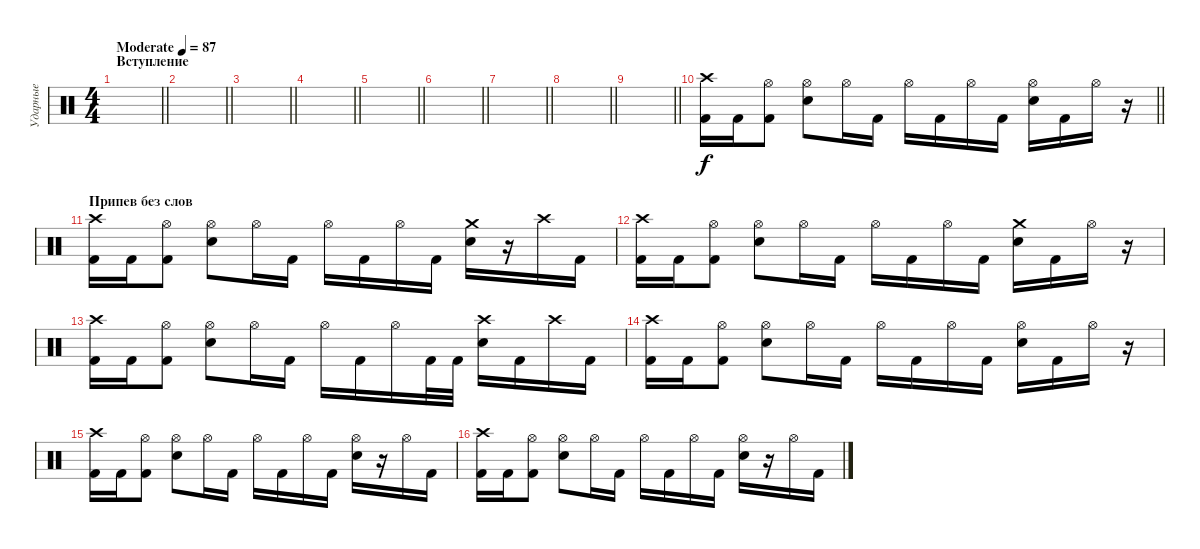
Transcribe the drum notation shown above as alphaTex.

\track ("Ударные" "Ударные") {instrument percussion}
\staff {score}
\articulation defaults
\ts (4 4)
\section ("" "Вступление")
\tempo (87 "Moderate")
\clef neutral
\barLineRight lightlight
\ks c
|
\barLineRight lightlight
|
\barLineRight lightlight
|
\barLineRight lightlight
|
\barLineRight lightlight
|
\barLineRight lightlight
|
\barLineRight lightlight
|
\barLineRight lightlight
|
\barLineRight lightlight
|
\barLineRight lightlight
("Crash high (hit)" "Kick (hit) 2").16 "Kick (hit) 2".16 ("Hi-Hat (open)" "Kick (hit) 2").8 ("Hi-Hat (open)" "Snare (hit) 2").8 "Hi-Hat (open)".16 "Kick (hit) 2".16 "Hi-Hat (open)".16 "Kick (hit) 2".16 "Hi-Hat (open)".16 "Kick (hit) 2".16 ("Hi-Hat (open)" "Snare (hit) 2").16 "Kick (hit) 2".16 "Hi-Hat (open)".16 r.16 |
\section ("" "Припев без слов")
("Crash high (hit)" "Kick (hit) 2").16 "Kick (hit) 2".16 ("Hi-Hat (open)" "Kick (hit) 2").8 ("Hi-Hat (open)" "Snare (hit) 2").8 "Hi-Hat (open)".16 "Kick (hit) 2".16 "Hi-Hat (open)".16 "Kick (hit) 2".16 "Hi-Hat (open)".16 "Kick (hit) 2".16 ("Crash medium (hit)" "Snare (hit) 2").16 r.16 "Crash high (hit)".16 "Kick (hit) 2".16 |
("Crash high (hit)" "Kick (hit) 2").16 "Kick (hit) 2".16 ("Hi-Hat (open)" "Kick (hit) 2").8 ("Hi-Hat (open)" "Snare (hit) 2").8 "Hi-Hat (open)".16 "Kick (hit) 2".16 "Hi-Hat (open)".16 "Kick (hit) 2".16 "Hi-Hat (open)".16 "Kick (hit) 2".16 ("Crash medium (hit)" "Snare (hit) 2").16 "Kick (hit) 2".16 "Hi-Hat (open)".16 r.16 |
("Crash high (hit)" "Kick (hit) 2").16 "Kick (hit) 2".16 ("Hi-Hat (open)" "Kick (hit) 2").8 ("Hi-Hat (open)" "Snare (hit) 2").8 "Hi-Hat (open)".16 "Kick (hit) 2".16 "Hi-Hat (open)".16 "Kick (hit) 2".16 "Hi-Hat (open)".16 "Kick (hit) 2".32 "Kick (hit) 2".32 ("Crash high (hit)" "Snare (hit) 2").16 "Kick (hit) 2".16 "Crash high (hit)".16 "Kick (hit) 2".16 |
("Crash high (hit)" "Kick (hit) 2").16 "Kick (hit) 2".16 ("Hi-Hat (open)" "Kick (hit) 2").8 ("Hi-Hat (open)" "Snare (hit) 2").8 "Hi-Hat (open)".16 "Kick (hit) 2".16 "Hi-Hat (open)".16 "Kick (hit) 2".16 "Hi-Hat (open)".16 "Kick (hit) 2".16 ("Hi-Hat (open)" "Snare (hit) 2").16 "Kick (hit) 2".16 "Hi-Hat (open)".16 r.16 |
("Crash high (hit)" "Kick (hit) 2").16 "Kick (hit) 2".16 ("Hi-Hat (open)" "Kick (hit) 2").8 ("Hi-Hat (open)" "Snare (hit) 2").8 "Hi-Hat (open)".16 "Kick (hit) 2".16 "Hi-Hat (open)".16 "Kick (hit) 2".16 "Hi-Hat (open)".16 "Kick (hit) 2".16 ("Hi-Hat (open)" "Snare (hit) 2").16 r.16 "Hi-Hat (open)".16 "Kick (hit) 2".16 |
("Crash high (hit)" "Kick (hit) 2").16 "Kick (hit) 2".16 ("Hi-Hat (open)" "Kick (hit) 2").8 ("Hi-Hat (open)" "Snare (hit) 2").8 "Hi-Hat (open)".16 "Kick (hit) 2".16 "Hi-Hat (open)".16 "Kick (hit) 2".16 "Hi-Hat (open)".16 "Kick (hit) 2".16 ("Hi-Hat (open)" "Snare (hit) 2").16 r.16 "Hi-Hat (open)".16 "Kick (hit) 2".16
